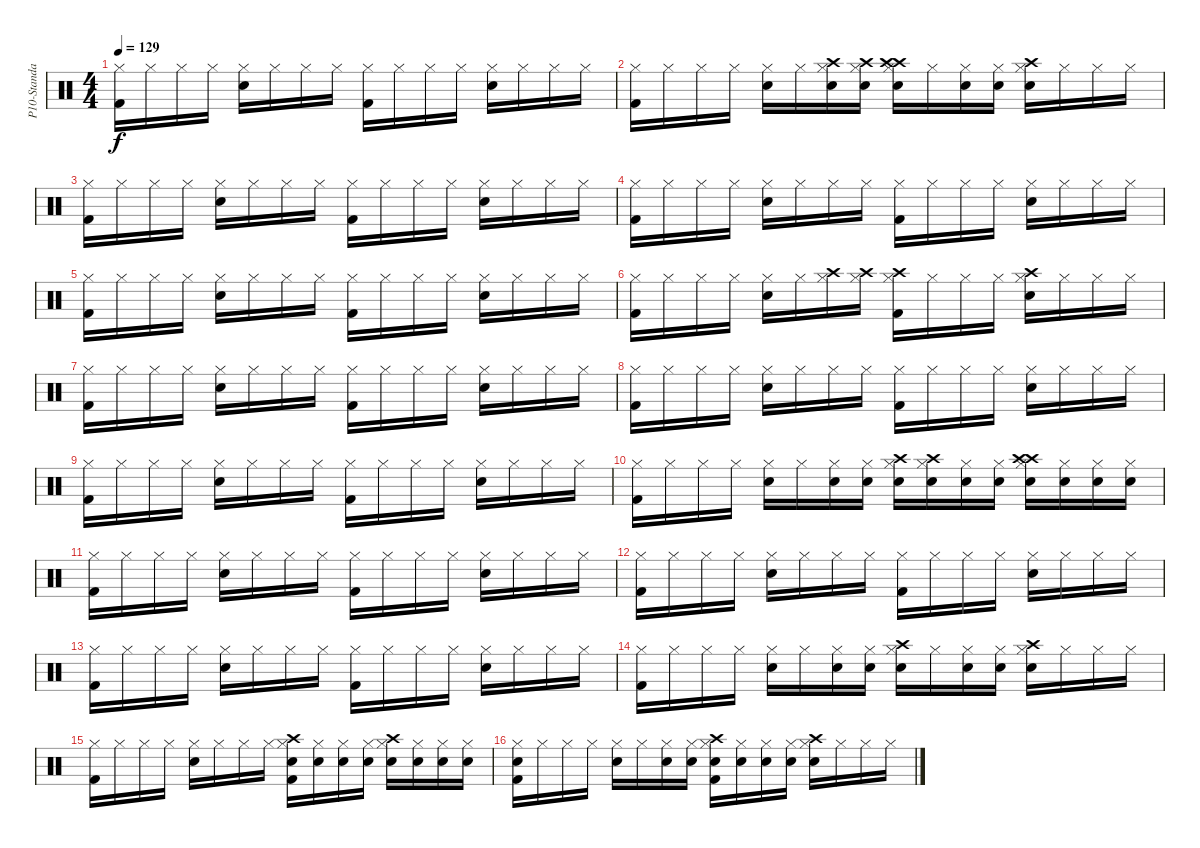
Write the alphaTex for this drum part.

\track ("P10-Standard Kit 2" "P10-Standa") {instrument percussion}
\staff {score}
\articulation defaults
\ts (4 4)
\tempo 129
\clef neutral
\ks c
("Kick (hit) 2" "Hi-Hat (closed)").16{dy f} "Hi-Hat (closed)".16 "Hi-Hat (closed)".16 "Hi-Hat (closed)".16 ("Snare (hit) 2" "Hi-Hat (closed)").16 "Hi-Hat (closed)".16 "Hi-Hat (closed)".16 "Hi-Hat (closed)".16 ("Kick (hit) 2" "Hi-Hat (closed)").16 "Hi-Hat (closed)".16 "Hi-Hat (closed)".16 "Hi-Hat (closed)".16 ("Snare (hit) 2" "Hi-Hat (closed)").16 "Hi-Hat (closed)".16 "Hi-Hat (closed)".16 "Hi-Hat (closed)".16 |
("Hi-Hat (closed)" "Kick (hit) 2").16 "Hi-Hat (closed)".16 "Hi-Hat (closed)".16 "Hi-Hat (closed)".16 ("Hi-Hat (closed)" "Snare (hit) 2").16 "Hi-Hat (closed)".16 ("Hi-Hat (closed)" "Snare (hit) 2" "Crash high (hit)").16 ("Crash high (hit)" "Hi-Hat (closed)" "Snare (hit) 2").16 ("Crash high (hit)" "Crash high (hit)" "Hi-Hat (closed)" "Snare (hit) 2").16 "Hi-Hat (closed)".16 ("Hi-Hat (closed)" "Snare (hit) 2").16 ("Snare (hit) 2" "Hi-Hat (closed)").16 ("Crash high (hit)" "Snare (hit) 2" "Hi-Hat (closed)").16 "Hi-Hat (closed)".16 "Hi-Hat (closed)".16 "Hi-Hat (closed)".16 |
("Kick (hit) 2" "Hi-Hat (closed)").16 "Hi-Hat (closed)".16 "Hi-Hat (closed)".16 "Hi-Hat (closed)".16 ("Snare (hit) 2" "Hi-Hat (closed)").16 "Hi-Hat (closed)".16 "Hi-Hat (closed)".16 "Hi-Hat (closed)".16 ("Kick (hit) 2" "Hi-Hat (closed)").16 "Hi-Hat (closed)".16 "Hi-Hat (closed)".16 "Hi-Hat (closed)".16 ("Snare (hit) 2" "Hi-Hat (closed)").16 "Hi-Hat (closed)".16 "Hi-Hat (closed)".16 "Hi-Hat (closed)".16 |
("Kick (hit) 2" "Hi-Hat (closed)").16 "Hi-Hat (closed)".16 "Hi-Hat (closed)".16 "Hi-Hat (closed)".16 ("Snare (hit) 2" "Hi-Hat (closed)").16 "Hi-Hat (closed)".16 "Hi-Hat (closed)".16 "Hi-Hat (closed)".16 ("Kick (hit) 2" "Hi-Hat (closed)").16 "Hi-Hat (closed)".16 "Hi-Hat (closed)".16 "Hi-Hat (closed)".16 ("Snare (hit) 2" "Hi-Hat (closed)").16 "Hi-Hat (closed)".16 "Hi-Hat (closed)".16 "Hi-Hat (closed)".16 |
("Kick (hit) 2" "Hi-Hat (closed)").16 "Hi-Hat (closed)".16 "Hi-Hat (closed)".16 "Hi-Hat (closed)".16 ("Snare (hit) 2" "Hi-Hat (closed)").16 "Hi-Hat (closed)".16 "Hi-Hat (closed)".16 "Hi-Hat (closed)".16 ("Kick (hit) 2" "Hi-Hat (closed)").16 "Hi-Hat (closed)".16 "Hi-Hat (closed)".16 "Hi-Hat (closed)".16 ("Snare (hit) 2" "Hi-Hat (closed)").16 "Hi-Hat (closed)".16 "Hi-Hat (closed)".16 "Hi-Hat (closed)".16 |
("Kick (hit) 2" "Hi-Hat (closed)").16 "Hi-Hat (closed)".16 "Hi-Hat (closed)".16 "Hi-Hat (closed)".16 ("Snare (hit) 2" "Hi-Hat (closed)").16 "Hi-Hat (closed)".16 ("Crash high (hit)" "Hi-Hat (closed)").16 ("Hi-Hat (closed)" "Crash high (hit)").16 ("Hi-Hat (closed)" "Crash high (hit)" "Kick (hit) 2").16 "Hi-Hat (closed)".16 "Hi-Hat (closed)".16 "Hi-Hat (closed)".16 ("Snare (hit) 2" "Hi-Hat (closed)" "Crash high (hit)").16 "Hi-Hat (closed)".16 "Hi-Hat (closed)".16 "Hi-Hat (closed)".16 |
("Hi-Hat (closed)" "Kick (hit) 2").16 "Hi-Hat (closed)".16 "Hi-Hat (closed)".16 "Hi-Hat (closed)".16 ("Snare (hit) 2" "Hi-Hat (closed)").16 "Hi-Hat (closed)".16 "Hi-Hat (closed)".16 "Hi-Hat (closed)".16 ("Kick (hit) 2" "Hi-Hat (closed)").16 "Hi-Hat (closed)".16 "Hi-Hat (closed)".16 "Hi-Hat (closed)".16 ("Hi-Hat (closed)" "Snare (hit) 2").16 "Hi-Hat (closed)".16 "Hi-Hat (closed)".16 "Hi-Hat (closed)".16 |
("Kick (hit) 2" "Hi-Hat (closed)").16 "Hi-Hat (closed)".16 "Hi-Hat (closed)".16 "Hi-Hat (closed)".16 ("Hi-Hat (closed)" "Snare (hit) 2").16 "Hi-Hat (closed)".16 "Hi-Hat (closed)".16 "Hi-Hat (closed)".16 ("Kick (hit) 2" "Hi-Hat (closed)").16 "Hi-Hat (closed)".16 "Hi-Hat (closed)".16 "Hi-Hat (closed)".16 ("Snare (hit) 2" "Hi-Hat (closed)").16 "Hi-Hat (closed)".16 "Hi-Hat (closed)".16 "Hi-Hat (closed)".16 |
("Hi-Hat (closed)" "Kick (hit) 2").16 "Hi-Hat (closed)".16 "Hi-Hat (closed)".16 "Hi-Hat (closed)".16 ("Snare (hit) 2" "Hi-Hat (closed)").16 "Hi-Hat (closed)".16 "Hi-Hat (closed)".16 "Hi-Hat (closed)".16 ("Hi-Hat (closed)" "Kick (hit) 2").16 "Hi-Hat (closed)".16 "Hi-Hat (closed)".16 "Hi-Hat (closed)".16 ("Snare (hit) 2" "Hi-Hat (closed)").16 "Hi-Hat (closed)".16 "Hi-Hat (closed)".16 "Hi-Hat (closed)".16 |
("Hi-Hat (closed)" "Kick (hit) 2").16 "Hi-Hat (closed)".16 "Hi-Hat (closed)".16 "Hi-Hat (closed)".16 ("Snare (hit) 2" "Hi-Hat (closed)").16 "Hi-Hat (closed)".16 ("Snare (hit) 2" "Hi-Hat (closed)").16 ("Hi-Hat (closed)" "Snare (hit) 2").16 ("Hi-Hat (closed)" "Snare (hit) 2" "Crash high (hit)").16 ("Hi-Hat (closed)" "Snare (hit) 2" "Crash high (hit)").16 ("Snare (hit) 2" "Hi-Hat (closed)").16 ("Snare (hit) 2" "Hi-Hat (closed)").16 ("Crash high (hit)" "Hi-Hat (closed)" "Crash high (hit)" "Snare (hit) 2").16 ("Hi-Hat (closed)" "Snare (hit) 2").16 ("Snare (hit) 2" "Hi-Hat (closed)").16 ("Hi-Hat (closed)" "Snare (hit) 2").16 |
("Kick (hit) 2" "Hi-Hat (closed)").16 "Hi-Hat (closed)".16 "Hi-Hat (closed)".16 "Hi-Hat (closed)".16 ("Hi-Hat (closed)" "Snare (hit) 2").16 "Hi-Hat (closed)".16 "Hi-Hat (closed)".16 "Hi-Hat (closed)".16 ("Kick (hit) 2" "Hi-Hat (closed)").16 "Hi-Hat (closed)".16 "Hi-Hat (closed)".16 "Hi-Hat (closed)".16 ("Hi-Hat (closed)" "Snare (hit) 2").16 "Hi-Hat (closed)".16 "Hi-Hat (closed)".16 "Hi-Hat (closed)".16 |
("Kick (hit) 2" "Hi-Hat (closed)").16 "Hi-Hat (closed)".16 "Hi-Hat (closed)".16 "Hi-Hat (closed)".16 ("Snare (hit) 2" "Hi-Hat (closed)").16 "Hi-Hat (closed)".16 "Hi-Hat (closed)".16 "Hi-Hat (closed)".16 ("Hi-Hat (closed)" "Kick (hit) 2").16 "Hi-Hat (closed)".16 "Hi-Hat (closed)".16 "Hi-Hat (closed)".16 ("Snare (hit) 2" "Hi-Hat (closed)").16 "Hi-Hat (closed)".16 "Hi-Hat (closed)".16 "Hi-Hat (closed)".16 |
("Hi-Hat (closed)" "Kick (hit) 2").16 "Hi-Hat (closed)".16 "Hi-Hat (closed)".16 "Hi-Hat (closed)".16 ("Snare (hit) 2" "Hi-Hat (closed)").16 "Hi-Hat (closed)".16 "Hi-Hat (closed)".16 "Hi-Hat (closed)".16 ("Kick (hit) 2" "Hi-Hat (closed)").16 "Hi-Hat (closed)".16 "Hi-Hat (closed)".16 "Hi-Hat (closed)".16 ("Hi-Hat (closed)" "Snare (hit) 2").16 "Hi-Hat (closed)".16 "Hi-Hat (closed)".16 "Hi-Hat (closed)".16 |
("Hi-Hat (closed)" "Kick (hit) 2").16 "Hi-Hat (closed)".16 "Hi-Hat (closed)".16 "Hi-Hat (closed)".16 ("Snare (hit) 2" "Hi-Hat (closed)").16 "Hi-Hat (closed)".16 ("Snare (hit) 2" "Hi-Hat (closed)").16 ("Hi-Hat (closed)" "Snare (hit) 2").16 ("Hi-Hat (closed)" "Snare (hit) 2" "Crash high (hit)").16 "Hi-Hat (closed)".16 ("Hi-Hat (closed)" "Snare (hit) 2").16 ("Snare (hit) 2" "Hi-Hat (closed)").16 ("Snare (hit) 2" "Hi-Hat (closed)" "Crash high (hit)").16 "Hi-Hat (closed)".16 "Hi-Hat (closed)".16 "Hi-Hat (closed)".16 |
("Kick (hit) 2" "Hi-Hat (closed)").16 "Hi-Hat (closed)".16 "Hi-Hat (closed)".16 "Hi-Hat (closed)".16 ("Hi-Hat (closed)" "Snare (hit) 2").16 "Hi-Hat (closed)".16 "Hi-Hat (closed)".16 "Hi-Hat (closed)".16 ("Hi-Hat (closed)" "Snare (hit) 2" "Kick (hit) 2" "Crash high (hit)").16 ("Hi-Hat (closed)" "Snare (hit) 2").16 ("Snare (hit) 2" "Hi-Hat (closed)").16 ("Hi-Hat (closed)" "Snare (hit) 2").16 ("Crash high (hit)" "Hi-Hat (closed)" "Snare (hit) 2").16 ("Snare (hit) 2" "Hi-Hat (closed)").16 ("Snare (hit) 2" "Hi-Hat (closed)").16 ("Snare (hit) 2" "Hi-Hat (closed)").16 |
("Kick (hit) 2" "Snare (hit) 2" "Hi-Hat (closed)").16 "Hi-Hat (closed)".16 "Hi-Hat (closed)".16 "Hi-Hat (closed)".16 ("Snare (hit) 2" "Hi-Hat (closed)").16 "Hi-Hat (closed)".16 ("Hi-Hat (closed)" "Snare (hit) 2").16 ("Hi-Hat (closed)" "Snare (hit) 2").16 ("Hi-Hat (closed)" "Kick (hit) 2" "Snare (hit) 2" "Crash high (hit)").16 ("Snare (hit) 2" "Hi-Hat (closed)").16 ("Snare (hit) 2" "Hi-Hat (closed)").16 ("Snare (hit) 2" "Hi-Hat (closed)").16 ("Snare (hit) 2" "Crash high (hit)" "Hi-Hat (closed)").16 "Hi-Hat (closed)".16 "Hi-Hat (closed)".16 "Hi-Hat (closed)".16
